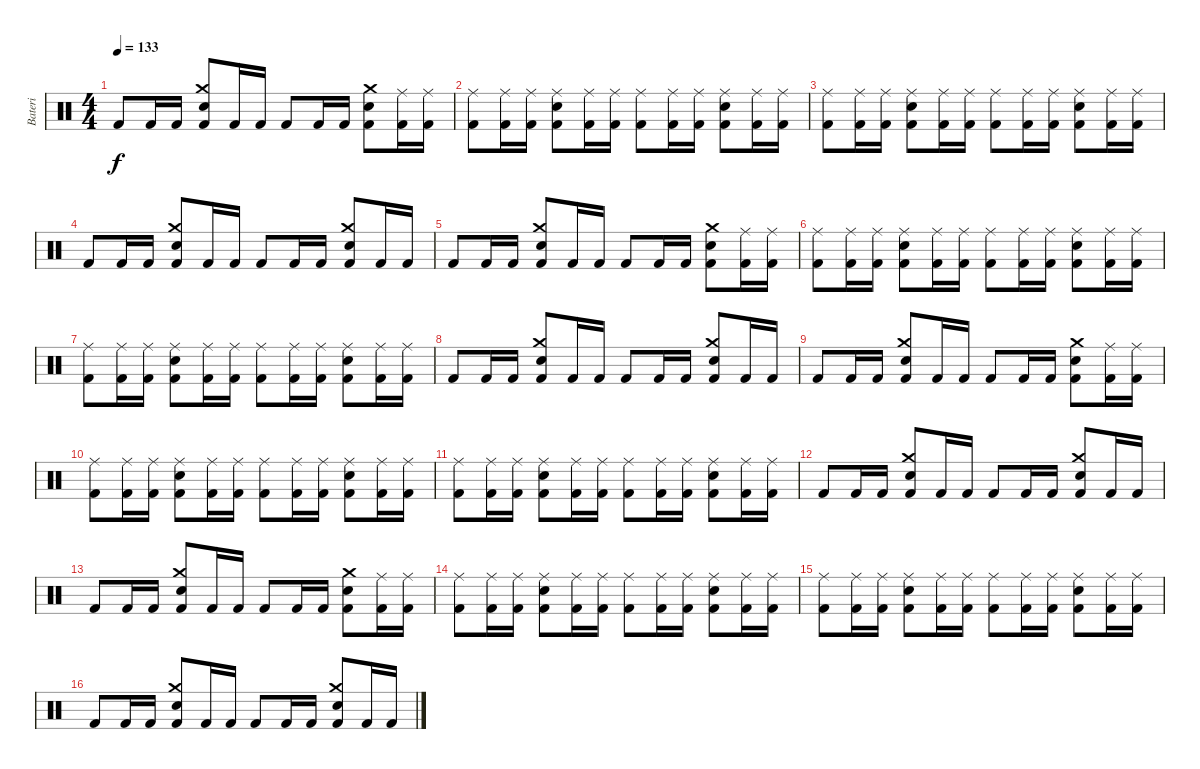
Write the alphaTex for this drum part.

\track ("Bateri" "Bateri") {instrument percussion}
\staff {score}
\articulation defaults
\ts (4 4)
\tempo 133
\clef neutral
\ks c "Kick (hit) 2".8{dy f} "Kick (hit) 2".16 "Kick (hit) 2".16
("Crash medium (hit)" "Snare (hit) 2" "Kick (hit) 2").8 "Kick (hit) 2".16 "Kick (hit) 2".16 "Kick (hit) 2".8 "Kick (hit) 2".16 "Kick (hit) 2".16 ("Crash medium (hit)" "Snare (hit) 2" "Kick (hit) 2").8 ("Ride (middle)" "Kick (hit) 2").16 ("Ride (middle)" "Kick (hit) 2").16 |
("Ride (middle)" "Kick (hit) 2").8 ("Ride (middle)" "Kick (hit) 2").16 ("Ride (middle)" "Kick (hit) 2").16 ("Snare (hit) 2" "Ride (middle)" "Kick (hit) 2").8 ("Ride (middle)" "Kick (hit) 2").16 ("Ride (middle)" "Kick (hit) 2").16 ("Ride (middle)" "Kick (hit) 2").8 ("Ride (middle)" "Kick (hit) 2").16 ("Ride (middle)" "Kick (hit) 2").16 ("Snare (hit) 2" "Ride (middle)" "Kick (hit) 2").8 ("Ride (middle)" "Kick (hit) 2").16 ("Ride (middle)" "Kick (hit) 2").16 |
("Ride (middle)" "Kick (hit) 2").8 ("Ride (middle)" "Kick (hit) 2").16 ("Ride (middle)" "Kick (hit) 2").16 ("Snare (hit) 2" "Ride (middle)" "Kick (hit) 2").8 ("Ride (middle)" "Kick (hit) 2").16 ("Ride (middle)" "Kick (hit) 2").16 ("Ride (middle)" "Kick (hit) 2").8 ("Ride (middle)" "Kick (hit) 2").16 ("Ride (middle)" "Kick (hit) 2").16 ("Snare (hit) 2" "Ride (middle)" "Kick (hit) 2").8 ("Ride (middle)" "Kick (hit) 2").16 ("Ride (middle)" "Kick (hit) 2").16 |
"Kick (hit) 2".8 "Kick (hit) 2".16 "Kick (hit) 2".16 ("Crash medium (hit)" "Snare (hit) 2" "Kick (hit) 2").8 "Kick (hit) 2".16 "Kick (hit) 2".16 "Kick (hit) 2".8 "Kick (hit) 2".16 "Kick (hit) 2".16 ("Crash medium (hit)" "Snare (hit) 2" "Kick (hit) 2").8 "Kick (hit) 2".16 "Kick (hit) 2".16 |
"Kick (hit) 2".8 "Kick (hit) 2".16 "Kick (hit) 2".16 ("Crash medium (hit)" "Snare (hit) 2" "Kick (hit) 2").8 "Kick (hit) 2".16 "Kick (hit) 2".16 "Kick (hit) 2".8 "Kick (hit) 2".16 "Kick (hit) 2".16 ("Crash medium (hit)" "Snare (hit) 2" "Kick (hit) 2").8 ("Ride (middle)" "Kick (hit) 2").16 ("Ride (middle)" "Kick (hit) 2").16 |
("Ride (middle)" "Kick (hit) 2").8 ("Ride (middle)" "Kick (hit) 2").16 ("Ride (middle)" "Kick (hit) 2").16 ("Snare (hit) 2" "Ride (middle)" "Kick (hit) 2").8 ("Ride (middle)" "Kick (hit) 2").16 ("Ride (middle)" "Kick (hit) 2").16 ("Ride (middle)" "Kick (hit) 2").8 ("Ride (middle)" "Kick (hit) 2").16 ("Ride (middle)" "Kick (hit) 2").16 ("Snare (hit) 2" "Ride (middle)" "Kick (hit) 2").8 ("Ride (middle)" "Kick (hit) 2").16 ("Ride (middle)" "Kick (hit) 2").16 |
("Ride (middle)" "Kick (hit) 2").8 ("Ride (middle)" "Kick (hit) 2").16 ("Ride (middle)" "Kick (hit) 2").16 ("Snare (hit) 2" "Ride (middle)" "Kick (hit) 2").8 ("Ride (middle)" "Kick (hit) 2").16 ("Ride (middle)" "Kick (hit) 2").16 ("Ride (middle)" "Kick (hit) 2").8 ("Ride (middle)" "Kick (hit) 2").16 ("Ride (middle)" "Kick (hit) 2").16 ("Snare (hit) 2" "Ride (middle)" "Kick (hit) 2").8 ("Ride (middle)" "Kick (hit) 2").16 ("Ride (middle)" "Kick (hit) 2").16 |
"Kick (hit) 2".8 "Kick (hit) 2".16 "Kick (hit) 2".16 ("Crash medium (hit)" "Snare (hit) 2" "Kick (hit) 2").8 "Kick (hit) 2".16 "Kick (hit) 2".16 "Kick (hit) 2".8 "Kick (hit) 2".16 "Kick (hit) 2".16 ("Crash medium (hit)" "Snare (hit) 2" "Kick (hit) 2").8 "Kick (hit) 2".16 "Kick (hit) 2".16 |
"Kick (hit) 2".8 "Kick (hit) 2".16 "Kick (hit) 2".16 ("Crash medium (hit)" "Snare (hit) 2" "Kick (hit) 2").8 "Kick (hit) 2".16 "Kick (hit) 2".16 "Kick (hit) 2".8 "Kick (hit) 2".16 "Kick (hit) 2".16 ("Crash medium (hit)" "Snare (hit) 2" "Kick (hit) 2").8 ("Ride (middle)" "Kick (hit) 2").16 ("Ride (middle)" "Kick (hit) 2").16 |
("Ride (middle)" "Kick (hit) 2").8 ("Ride (middle)" "Kick (hit) 2").16 ("Ride (middle)" "Kick (hit) 2").16 ("Snare (hit) 2" "Ride (middle)" "Kick (hit) 2").8 ("Ride (middle)" "Kick (hit) 2").16 ("Ride (middle)" "Kick (hit) 2").16 ("Ride (middle)" "Kick (hit) 2").8 ("Ride (middle)" "Kick (hit) 2").16 ("Ride (middle)" "Kick (hit) 2").16 ("Snare (hit) 2" "Ride (middle)" "Kick (hit) 2").8 ("Ride (middle)" "Kick (hit) 2").16 ("Ride (middle)" "Kick (hit) 2").16 |
("Ride (middle)" "Kick (hit) 2").8 ("Ride (middle)" "Kick (hit) 2").16 ("Ride (middle)" "Kick (hit) 2").16 ("Snare (hit) 2" "Ride (middle)" "Kick (hit) 2").8 ("Ride (middle)" "Kick (hit) 2").16 ("Ride (middle)" "Kick (hit) 2").16 ("Ride (middle)" "Kick (hit) 2").8 ("Ride (middle)" "Kick (hit) 2").16 ("Ride (middle)" "Kick (hit) 2").16 ("Snare (hit) 2" "Ride (middle)" "Kick (hit) 2").8 ("Ride (middle)" "Kick (hit) 2").16 ("Ride (middle)" "Kick (hit) 2").16 |
"Kick (hit) 2".8 "Kick (hit) 2".16 "Kick (hit) 2".16 ("Crash medium (hit)" "Snare (hit) 2" "Kick (hit) 2").8 "Kick (hit) 2".16 "Kick (hit) 2".16 "Kick (hit) 2".8 "Kick (hit) 2".16 "Kick (hit) 2".16 ("Crash medium (hit)" "Snare (hit) 2" "Kick (hit) 2").8 "Kick (hit) 2".16 "Kick (hit) 2".16 |
"Kick (hit) 2".8 "Kick (hit) 2".16 "Kick (hit) 2".16 ("Crash medium (hit)" "Snare (hit) 2" "Kick (hit) 2").8 "Kick (hit) 2".16 "Kick (hit) 2".16 "Kick (hit) 2".8 "Kick (hit) 2".16 "Kick (hit) 2".16 ("Crash medium (hit)" "Snare (hit) 2" "Kick (hit) 2").8 ("Ride (middle)" "Kick (hit) 2").16 ("Ride (middle)" "Kick (hit) 2").16 |
("Ride (middle)" "Kick (hit) 2").8 ("Ride (middle)" "Kick (hit) 2").16 ("Ride (middle)" "Kick (hit) 2").16 ("Snare (hit) 2" "Ride (middle)" "Kick (hit) 2").8 ("Ride (middle)" "Kick (hit) 2").16 ("Ride (middle)" "Kick (hit) 2").16 ("Ride (middle)" "Kick (hit) 2").8 ("Ride (middle)" "Kick (hit) 2").16 ("Ride (middle)" "Kick (hit) 2").16 ("Snare (hit) 2" "Ride (middle)" "Kick (hit) 2").8 ("Ride (middle)" "Kick (hit) 2").16 ("Ride (middle)" "Kick (hit) 2").16 |
("Ride (middle)" "Kick (hit) 2").8 ("Ride (middle)" "Kick (hit) 2").16 ("Ride (middle)" "Kick (hit) 2").16 ("Snare (hit) 2" "Ride (middle)" "Kick (hit) 2").8 ("Ride (middle)" "Kick (hit) 2").16 ("Ride (middle)" "Kick (hit) 2").16 ("Ride (middle)" "Kick (hit) 2").8 ("Ride (middle)" "Kick (hit) 2").16 ("Ride (middle)" "Kick (hit) 2").16 ("Snare (hit) 2" "Ride (middle)" "Kick (hit) 2").8 ("Ride (middle)" "Kick (hit) 2").16 ("Ride (middle)" "Kick (hit) 2").16 |
"Kick (hit) 2".8 "Kick (hit) 2".16 "Kick (hit) 2".16 ("Crash medium (hit)" "Snare (hit) 2" "Kick (hit) 2").8 "Kick (hit) 2".16 "Kick (hit) 2".16 "Kick (hit) 2".8 "Kick (hit) 2".16 "Kick (hit) 2".16 ("Crash medium (hit)" "Snare (hit) 2" "Kick (hit) 2").8 "Kick (hit) 2".16 "Kick (hit) 2".16
